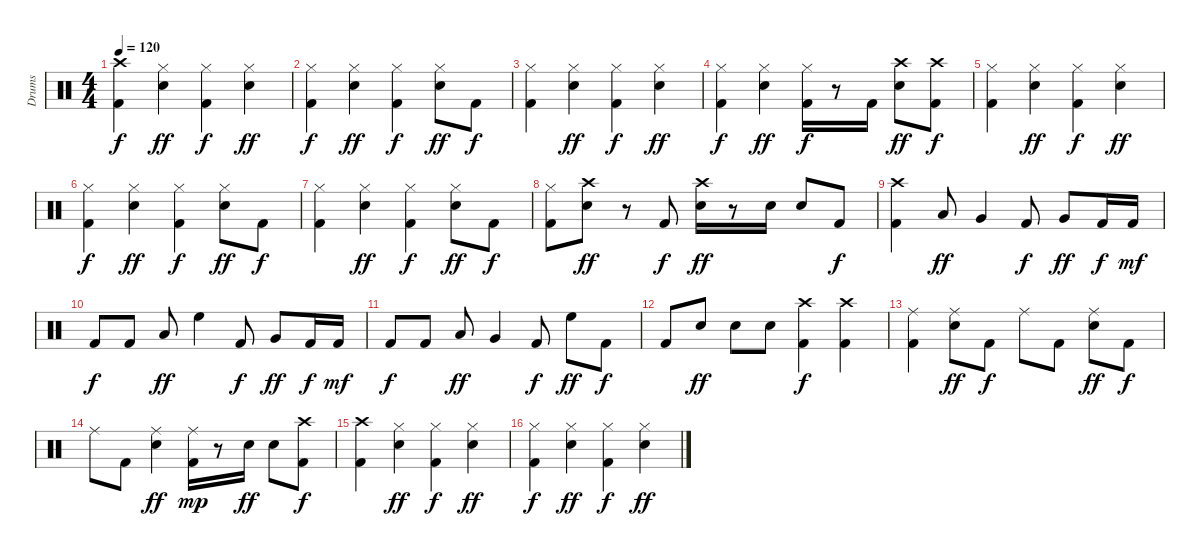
\track ("Drums" "Drums") {instrument percussion}
\staff {score}
\articulation defaults
\ts (4 4)
\tempo 120
\clef neutral
\ks c
("Crash high (hit)" "Kick (hit) 2").4{dy f} ("Snare (hit) 2" "Hi-Hat (closed)").4{dy ff} ("Hi-Hat (closed)" "Kick (hit) 2").4{dy f} ("Snare (hit) 2" "Hi-Hat (closed)").4{dy ff} |
("Hi-Hat (closed)" "Kick (hit) 2").4{dy f} ("Snare (hit) 2" "Hi-Hat (closed)").4{dy ff} ("Hi-Hat (closed)" "Kick (hit) 2").4{dy f} ("Snare (hit) 2" "Hi-Hat (closed)").8{dy ff} "Kick (hit) 2".8{dy f} |
("Hi-Hat (closed)" "Kick (hit) 2").4 ("Snare (hit) 2" "Hi-Hat (closed)").4{dy ff} ("Hi-Hat (closed)" "Kick (hit) 2").4{dy f} ("Snare (hit) 2" "Hi-Hat (closed)").4{dy ff} |
("Hi-Hat (closed)" "Kick (hit) 2").4{dy f} ("Snare (hit) 2" "Hi-Hat (closed)").4{dy ff} ("Hi-Hat (closed)" "Kick (hit) 2").16{dy f} r.8 "Kick (hit) 2".16 ("Snare (hit) 2" "Crash high (hit)").8{dy ff} ("Crash high (hit)" "Kick (hit) 2").8{dy f} |
("Hi-Hat (closed)" "Kick (hit) 2").4 ("Snare (hit) 2" "Hi-Hat (closed)").4{dy ff} ("Hi-Hat (closed)" "Kick (hit) 2").4{dy f} ("Snare (hit) 2" "Hi-Hat (closed)").4{dy ff} |
("Hi-Hat (closed)" "Kick (hit) 2").4{dy f} ("Snare (hit) 2" "Hi-Hat (closed)").4{dy ff} ("Hi-Hat (closed)" "Kick (hit) 2").4{dy f} ("Snare (hit) 2" "Hi-Hat (closed)").8{dy ff} "Kick (hit) 2".8{dy f} |
("Hi-Hat (closed)" "Kick (hit) 2").4 ("Snare (hit) 2" "Hi-Hat (closed)").4{dy ff} ("Hi-Hat (closed)" "Kick (hit) 2").4{dy f} ("Snare (hit) 2" "Hi-Hat (closed)").8{dy ff} "Kick (hit) 2".8{dy f} |
("Hi-Hat (closed)" "Kick (hit) 2").8 ("Snare (hit) 2" "Crash high (hit)").8{dy ff} r.8 "Kick (hit) 2".8{dy f} ("Snare (hit) 2" "Crash high (hit)").16{dy ff} r.8 "Snare (hit) 2".16 "Snare (hit) 2".8 "Kick (hit) 2".8{dy f} |
("Crash high (hit)" "Kick (hit) 2").4 "Low Floor Tom (hit)".8{dy ff} "Very Low Tom (hit)".4 "Kick (hit) 2".8{dy f} "Very Low Tom (hit)".8{dy ff} "Kick (hit) 2".16{dy f} "Kick (hit) 2".16{dy mf} |
"Kick (hit) 2".8{dy f} "Kick (hit) 2".8 "Low Floor Tom (hit)".8{dy ff} "High Floor Tom (hit)".4 "Kick (hit) 2".8{dy f} "Very Low Tom (hit)".8{dy ff} "Kick (hit) 2".16{dy f} "Kick (hit) 2".16{dy mf} |
"Kick (hit) 2".8{dy f} "Kick (hit) 2".8 "Low Floor Tom (hit)".8{dy ff} "Very Low Tom (hit)".4 "Kick (hit) 2".8{dy f} "High Floor Tom (hit)".8{dy ff} "Kick (hit) 2".8{dy f} |
"Kick (hit) 2".8 "Snare (hit) 2".8{dy ff} "Snare (hit) 2".8 "Snare (hit) 2".8 ("Crash high (hit)" "Kick (hit) 2").4{dy f} ("Crash high (hit)" "Kick (hit) 2").4 |
("Ride (middle)" "Kick (hit) 2").4 ("Snare (hit) 2" "Ride (middle)").8{dy ff} "Kick (hit) 2".8{dy f} "Ride (middle)".8 "Kick (hit) 2".8 ("Snare (hit) 2" "Ride (middle)").8{dy ff} "Kick (hit) 2".8{dy f} |
"Ride (middle)".8 "Kick (hit) 2".8 ("Snare (hit) 2" "Ride (middle)").4{dy ff} ("Ride (middle)" "Kick (hit) 2").16{dy mp} r.8 "Snare (hit) 2".16{dy ff} "Snare (hit) 2".8 ("Crash high (hit)" "Kick (hit) 2").8{dy f} |
("Crash high (hit)" "Kick (hit) 2").4 ("Snare (hit) 2" "Hi-Hat (closed)").4{dy ff} ("Hi-Hat (closed)" "Kick (hit) 2").4{dy f} ("Snare (hit) 2" "Hi-Hat (closed)").4{dy ff} |
("Hi-Hat (closed)" "Kick (hit) 2").4{dy f} ("Hi-Hat (closed)" "Snare (hit) 2").4{dy ff} ("Hi-Hat (closed)" "Kick (hit) 2").4{dy f} ("Hi-Hat (closed)" "Snare (hit) 2").4{dy ff}
